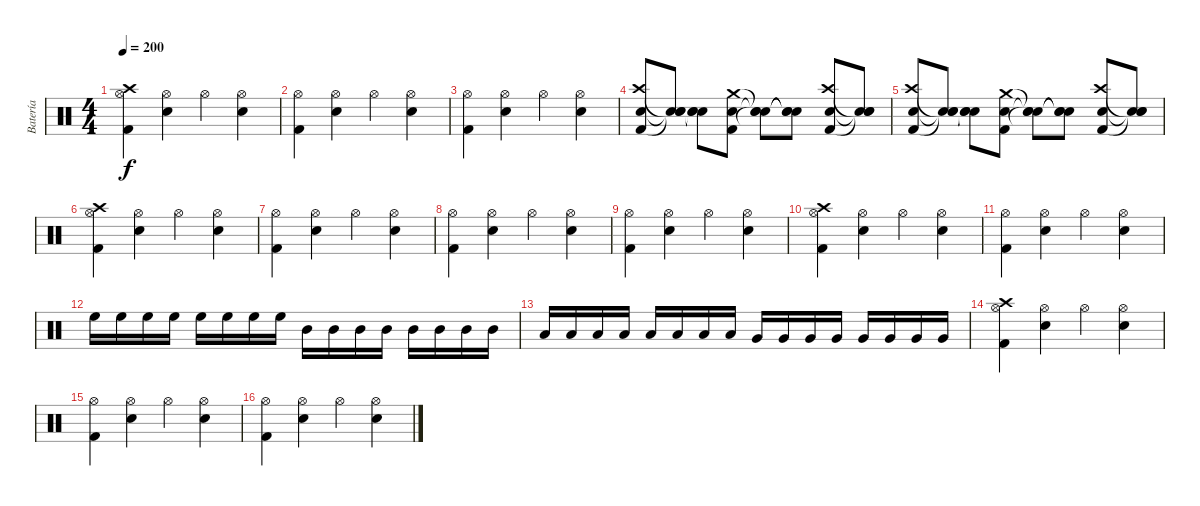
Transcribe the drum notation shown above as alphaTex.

\track ("Batería" "Batería") {instrument percussion}
\staff {score}
\articulation defaults
\ts (4 4)
\tempo 200
\clef neutral
\ks c
("Hi-Hat (open)" "Kick (hit) 2" "Crash high (hit)").4{dy f} ("Hi-Hat (open)" "Electric Snare (hit)").4 "Hi-Hat (open)".4 ("Hi-Hat (open)" "Electric Snare (hit)").4 |
("Hi-Hat (open)" "Kick (hit) 2").4 ("Hi-Hat (open)" "Electric Snare (hit)").4 "Hi-Hat (open)".4 ("Hi-Hat (open)" "Electric Snare (hit)").4 |
("Hi-Hat (open)" "Kick (hit) 2").4 ("Hi-Hat (open)" "Electric Snare (hit)").4 "Hi-Hat (open)".4 ("Hi-Hat (open)" "Electric Snare (hit)").4 |
("Electric Snare (hit)" "Kick (hit) 2" "Crash high (hit)").8 ("Snare (hit)"{t} "Snare (hit)"{t} "Snare (hit)"{t}).8 ("Snare (hit)"{t} "Snare (hit)"{t} "Snare (hit)"{t}).8 ("Electric Snare (hit)" "Kick (hit) 2" "Crash medium (hit)").8 ("Snare (hit)"{t} "Snare (hit)"{t} "Snare (hit)"{t}).8 ("Snare (hit)"{t} "Snare (hit)"{t} "Snare (hit)"{t}).8 ("Electric Snare (hit)" "Kick (hit) 2" "Crash high (hit)").8 ("Snare (hit)"{t} "Snare (hit)"{t} "Snare (hit)"{t}).8 |
("Electric Snare (hit)" "Kick (hit) 2" "Crash high (hit)").8 ("Snare (hit)"{t} "Snare (hit)"{t} "Snare (hit)"{t}).8 ("Snare (hit)"{t} "Snare (hit)"{t} "Snare (hit)"{t}).8 ("Electric Snare (hit)" "Kick (hit) 2" "Crash medium (hit)").8 ("Snare (hit)"{t} "Snare (hit)"{t} "Snare (hit)"{t}).8 ("Snare (hit)"{t} "Snare (hit)"{t} "Snare (hit)"{t}).8 ("Electric Snare (hit)" "Kick (hit) 2" "Crash high (hit)").8 ("Snare (hit)"{t} "Snare (hit)"{t} "Snare (hit)"{t}).8 |
("Hi-Hat (open)" "Kick (hit) 2" "Crash high (hit)").4 ("Hi-Hat (open)" "Electric Snare (hit)").4 "Hi-Hat (open)".4 ("Hi-Hat (open)" "Electric Snare (hit)").4 |
("Hi-Hat (open)" "Kick (hit) 2").4 ("Hi-Hat (open)" "Electric Snare (hit)").4 "Hi-Hat (open)".4 ("Hi-Hat (open)" "Electric Snare (hit)").4 |
("Hi-Hat (open)" "Kick (hit) 2").4 ("Hi-Hat (open)" "Electric Snare (hit)").4 "Hi-Hat (open)".4 ("Hi-Hat (open)" "Electric Snare (hit)").4 |
("Hi-Hat (open)" "Kick (hit) 2").4 ("Hi-Hat (open)" "Electric Snare (hit)").4 "Hi-Hat (open)".4 ("Hi-Hat (open)" "Electric Snare (hit)").4 |
("Hi-Hat (open)" "Kick (hit) 2" "Crash high (hit)").4 ("Hi-Hat (open)" "Electric Snare (hit)").4 "Hi-Hat (open)".4 ("Hi-Hat (open)" "Electric Snare (hit)").4 |
("Hi-Hat (open)" "Kick (hit) 2").4 ("Hi-Hat (open)" "Electric Snare (hit)").4 "Hi-Hat (open)".4 ("Hi-Hat (open)" "Electric Snare (hit)").4 |
"High Floor Tom (hit)".16 "High Floor Tom (hit)".16 "High Floor Tom (hit)".16 "High Floor Tom (hit)".16 "High Floor Tom (hit)".16 "High Floor Tom (hit)".16 "High Floor Tom (hit)".16 "High Floor Tom (hit)".16 "Mid Tom (hit)".16 "Mid Tom (hit)".16 "Mid Tom (hit)".16 "Mid Tom (hit)".16 "Mid Tom (hit)".16 "Mid Tom (hit)".16 "Mid Tom (hit)".16 "Mid Tom (hit)".16 |
"Low Tom (hit)".16 "Low Tom (hit)".16 "Low Tom (hit)".16 "Low Tom (hit)".16 "Low Tom (hit)".16 "Low Tom (hit)".16 "Low Tom (hit)".16 "Low Tom (hit)".16 "Very Low Tom (hit)".16 "Very Low Tom (hit)".16 "Very Low Tom (hit)".16 "Very Low Tom (hit)".16 "Very Low Tom (hit)".16 "Very Low Tom (hit)".16 "Very Low Tom (hit)".16 "Very Low Tom (hit)".16 |
("Hi-Hat (open)" "Kick (hit) 2" "Crash high (hit)").4 ("Hi-Hat (open)" "Electric Snare (hit)").4 "Hi-Hat (open)".4 ("Hi-Hat (open)" "Electric Snare (hit)").4 |
("Hi-Hat (open)" "Kick (hit) 2").4 ("Hi-Hat (open)" "Electric Snare (hit)").4 "Hi-Hat (open)".4 ("Hi-Hat (open)" "Electric Snare (hit)").4 |
("Hi-Hat (open)" "Kick (hit) 2").4 ("Hi-Hat (open)" "Electric Snare (hit)").4 "Hi-Hat (open)".4 ("Hi-Hat (open)" "Electric Snare (hit)").4
